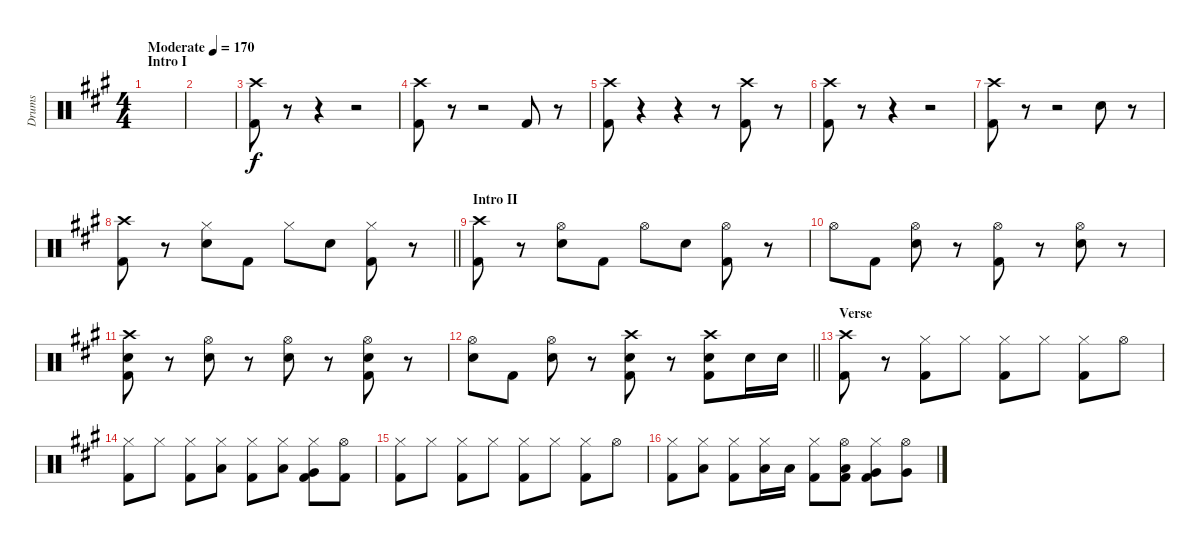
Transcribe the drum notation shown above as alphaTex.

\track ("Drums" "Drums") {instrument percussion}
\staff {score}
\articulation defaults
\ts (4 4)
\section ("" "Intro I")
\tempo (170 "Moderate")
\clef neutral
\ks a
|
|
("Crash high (hit)" "Kick (hit) 2").8 r.8 r.4 r.2 |
("Crash high (hit)" "Kick (hit) 2").8 r.8 r.2 "Kick (hit) 2".8 r.8 |
("Crash high (hit)" "Kick (hit) 2").8 r.4 r.4 r.8 ("Crash high (hit)" "Kick (hit) 2").8 r.8 |
("Crash high (hit)" "Kick (hit) 2").8 r.8 r.4 r.2 |
("Crash high (hit)" "Kick (hit) 2").8 r.8 r.2 "Snare (hit) 2".8 r.8 |
\barLineRight lightlight
("Crash high (hit)" "Kick (hit) 2").8 r.8 ("Hi-Hat (closed)" "Snare (hit) 2").8 "Kick (hit) 2".8 "Hi-Hat (closed)".8 "Snare (hit) 2".8 ("Hi-Hat (closed)" "Kick (hit) 2").8 r.8 |
\section ("" "Intro II")
("Crash high (hit)" "Kick (hit) 2").8 r.8 ("Hi-Hat (open)" "Snare (hit) 2").8 "Kick (hit) 2".8 "Hi-Hat (open)".8 "Snare (hit) 2".8 ("Hi-Hat (open)" "Kick (hit) 2").8 r.8 |
"Hi-Hat (open)".8 "Kick (hit) 2".8 ("Hi-Hat (open)" "Snare (hit) 2").8 r.8 ("Hi-Hat (open)" "Kick (hit) 2").8 r.8 ("Hi-Hat (open)" "Snare (hit) 2").8 r.8 |
("Crash high (hit)" "Snare (hit) 2" "Kick (hit) 2").8 r.8 ("Hi-Hat (open)" "Snare (hit) 2").8 r.8 ("Hi-Hat (open)" "Snare (hit) 2").8 r.8 ("Hi-Hat (open)" "Snare (hit) 2" "Kick (hit) 2").8 r.8 |
\barLineRight lightlight
("Hi-Hat (open)" "Snare (hit) 2").8 "Kick (hit) 2".8 ("Hi-Hat (open)" "Snare (hit) 2").8 r.8 ("Crash high (hit)" "Snare (hit) 2" "Kick (hit) 2").8 r.8 ("Crash high (hit)" "Snare (hit) 2" "Kick (hit) 2").8 "Snare (hit) 2".16 "Snare (hit) 2".16 |
\section ("" "Verse")
("Crash high (hit)" "Kick (hit) 2").8 r.8 ("Hi-Hat (closed)" "Kick (hit) 2").8 "Hi-Hat (closed)".8 ("Hi-Hat (closed)" "Kick (hit) 2").8 "Hi-Hat (closed)".8 ("Hi-Hat (closed)" "Kick (hit) 2").8 "Hi-Hat (open)".8 |
("Hi-Hat (closed)" "Kick (hit) 2").8 "Hi-Hat (closed)".8 ("Hi-Hat (closed)" "Kick (hit) 2").8 ("Hi-Hat (closed)" "Low Tom (hit)").8 ("Hi-Hat (closed)" "Kick (hit) 2").8 ("Hi-Hat (closed)" "Low Tom (hit)").8 ("Hi-Hat (closed)" "Very Low Tom (hit)" "Kick (hit) 2").8 ("Hi-Hat (open)" "Kick (hit) 2").8 |
("Hi-Hat (closed)" "Kick (hit) 2").8 "Hi-Hat (closed)".8 ("Hi-Hat (closed)" "Kick (hit) 2").8 "Hi-Hat (closed)".8 ("Hi-Hat (closed)" "Kick (hit) 2").8 "Hi-Hat (closed)".8 ("Hi-Hat (closed)" "Kick (hit) 2").8 "Hi-Hat (open)".8 |
("Hi-Hat (closed)" "Kick (hit) 2").8 ("Hi-Hat (closed)" "Low Tom (hit)").8 ("Hi-Hat (closed)" "Kick (hit) 2").8 ("Hi-Hat (closed)" "Low Tom (hit)").16 "Low Tom (hit)".16 ("Hi-Hat (closed)" "Kick (hit) 2").8 ("Hi-Hat (open)" "Low Tom (hit)" "Kick (hit) 2").8 ("Hi-Hat (closed)" "Very Low Tom (hit)" "Kick (hit) 2").8 ("Hi-Hat (open)" "Very Low Tom (hit)").8
